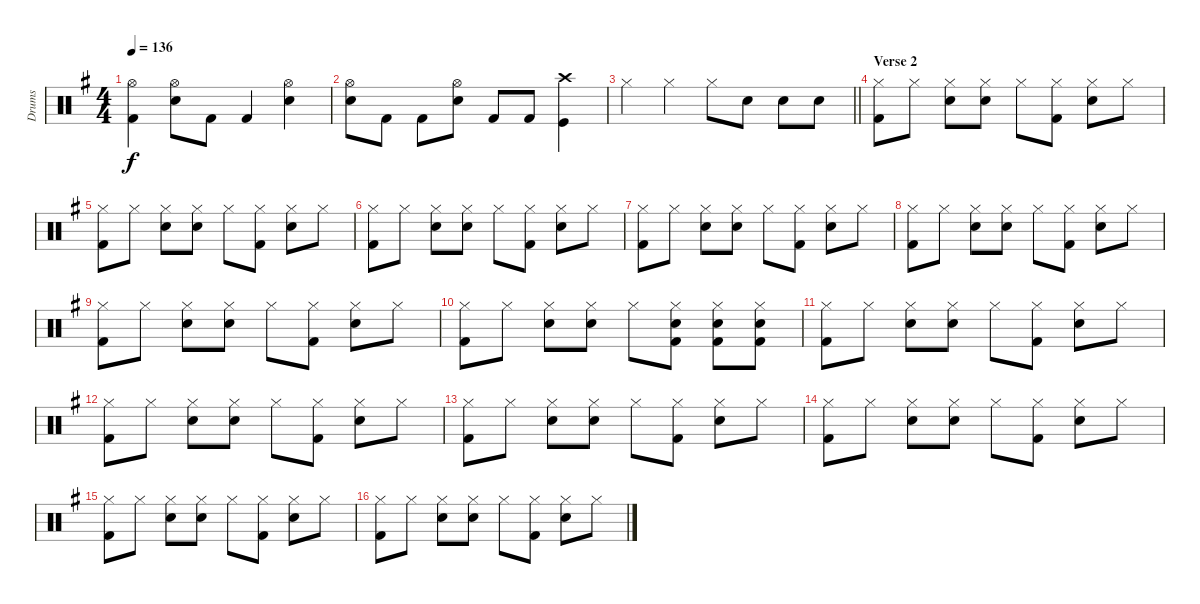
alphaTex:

\track ("Drums" "Drums") {instrument percussion}
\staff {score}
\articulation defaults
\ts (4 4)
\tempo 136
\clef neutral
\ks g
("Hi-Hat (open)" "Kick (hit) 2").4{dy f} ("Snare (hit) 2" "Hi-Hat (open)").8 "Kick (hit) 2".8 "Kick (hit) 2".4 ("Snare (hit) 2" "Hi-Hat (open)").4 |
("Hi-Hat (open)" "Snare (hit) 2").8 "Kick (hit) 2".8 "Kick (hit) 2".8 ("Hi-Hat (open)" "Snare (hit) 2").8 "Kick (hit) 2".8 "Kick (hit) 2".8 ("Crash high (hit)" "Kick (hit)").4 |
\barLineRight lightlight "Hi-Hat (closed)".4 "Hi-Hat (closed)".4 "Hi-Hat (closed)".8 "Snare (hit) 2".8 "Snare (hit) 2".8 "Snare (hit) 2".8
|
\section ("" "Verse 2")
("Hi-Hat (closed)" "Kick (hit) 2").8 "Hi-Hat (closed)".8 ("Hi-Hat (closed)" "Snare (hit) 2").8 ("Hi-Hat (closed)" "Snare (hit) 2").8 "Hi-Hat (closed)".8 ("Hi-Hat (closed)" "Kick (hit) 2").8 ("Hi-Hat (closed)" "Snare (hit) 2").8 "Hi-Hat (closed)".8 |
("Hi-Hat (closed)" "Kick (hit) 2").8 "Hi-Hat (closed)".8 ("Hi-Hat (closed)" "Snare (hit) 2").8 ("Hi-Hat (closed)" "Snare (hit) 2").8 "Hi-Hat (closed)".8 ("Hi-Hat (closed)" "Kick (hit) 2").8 ("Hi-Hat (closed)" "Snare (hit) 2").8 "Hi-Hat (closed)".8 |
("Hi-Hat (closed)" "Kick (hit) 2").8 "Hi-Hat (closed)".8 ("Hi-Hat (closed)" "Snare (hit) 2").8 ("Hi-Hat (closed)" "Snare (hit) 2").8 "Hi-Hat (closed)".8 ("Hi-Hat (closed)" "Kick (hit) 2").8 ("Hi-Hat (closed)" "Snare (hit) 2").8 "Hi-Hat (closed)".8 |
("Hi-Hat (closed)" "Kick (hit) 2").8 "Hi-Hat (closed)".8 ("Hi-Hat (closed)" "Snare (hit) 2").8 ("Hi-Hat (closed)" "Snare (hit) 2").8 "Hi-Hat (closed)".8 ("Hi-Hat (closed)" "Kick (hit) 2").8 ("Hi-Hat (closed)" "Snare (hit) 2").8 "Hi-Hat (closed)".8 |
("Hi-Hat (closed)" "Kick (hit) 2").8 "Hi-Hat (closed)".8 ("Hi-Hat (closed)" "Snare (hit) 2").8 ("Hi-Hat (closed)" "Snare (hit) 2").8 "Hi-Hat (closed)".8 ("Hi-Hat (closed)" "Kick (hit) 2").8 ("Hi-Hat (closed)" "Snare (hit) 2").8 "Hi-Hat (closed)".8 |
("Hi-Hat (closed)" "Kick (hit) 2").8 "Hi-Hat (closed)".8 ("Hi-Hat (closed)" "Snare (hit) 2").8 ("Hi-Hat (closed)" "Snare (hit) 2").8 "Hi-Hat (closed)".8 ("Hi-Hat (closed)" "Kick (hit) 2").8 ("Hi-Hat (closed)" "Snare (hit) 2").8 "Hi-Hat (closed)".8 |
("Hi-Hat (closed)" "Kick (hit) 2").8 "Hi-Hat (closed)".8 ("Hi-Hat (closed)" "Snare (hit) 2").8 ("Hi-Hat (closed)" "Snare (hit) 2").8 "Hi-Hat (closed)".8 ("Hi-Hat (closed)" "Kick (hit) 2" "Snare (hit) 2").8 ("Hi-Hat (closed)" "Snare (hit) 2" "Kick (hit) 2").8 ("Hi-Hat (closed)" "Snare (hit) 2" "Kick (hit) 2").8 |
("Hi-Hat (closed)" "Kick (hit) 2").8 "Hi-Hat (closed)".8 ("Hi-Hat (closed)" "Snare (hit) 2").8 ("Hi-Hat (closed)" "Snare (hit) 2").8 "Hi-Hat (closed)".8 ("Hi-Hat (closed)" "Kick (hit) 2").8 ("Hi-Hat (closed)" "Snare (hit) 2").8 "Hi-Hat (closed)".8 |
("Hi-Hat (closed)" "Kick (hit) 2").8 "Hi-Hat (closed)".8 ("Hi-Hat (closed)" "Snare (hit) 2").8 ("Hi-Hat (closed)" "Snare (hit) 2").8 "Hi-Hat (closed)".8 ("Hi-Hat (closed)" "Kick (hit) 2").8 ("Hi-Hat (closed)" "Snare (hit) 2").8 "Hi-Hat (closed)".8 |
("Hi-Hat (closed)" "Kick (hit) 2").8 "Hi-Hat (closed)".8 ("Hi-Hat (closed)" "Snare (hit) 2").8 ("Hi-Hat (closed)" "Snare (hit) 2").8 "Hi-Hat (closed)".8 ("Hi-Hat (closed)" "Kick (hit) 2").8 ("Hi-Hat (closed)" "Snare (hit) 2").8 "Hi-Hat (closed)".8 |
("Hi-Hat (closed)" "Kick (hit) 2").8 "Hi-Hat (closed)".8 ("Hi-Hat (closed)" "Snare (hit) 2").8 ("Hi-Hat (closed)" "Snare (hit) 2").8 "Hi-Hat (closed)".8 ("Hi-Hat (closed)" "Kick (hit) 2").8 ("Hi-Hat (closed)" "Snare (hit) 2").8 "Hi-Hat (closed)".8 |
("Hi-Hat (closed)" "Kick (hit) 2").8 "Hi-Hat (closed)".8 ("Hi-Hat (closed)" "Snare (hit) 2").8 ("Hi-Hat (closed)" "Snare (hit) 2").8 "Hi-Hat (closed)".8 ("Hi-Hat (closed)" "Kick (hit) 2").8 ("Hi-Hat (closed)" "Snare (hit) 2").8 "Hi-Hat (closed)".8 |
("Hi-Hat (closed)" "Kick (hit) 2").8 "Hi-Hat (closed)".8 ("Hi-Hat (closed)" "Snare (hit) 2").8 ("Hi-Hat (closed)" "Snare (hit) 2").8 "Hi-Hat (closed)".8 ("Hi-Hat (closed)" "Kick (hit) 2").8 ("Hi-Hat (closed)" "Snare (hit) 2").8 "Hi-Hat (closed)".8
